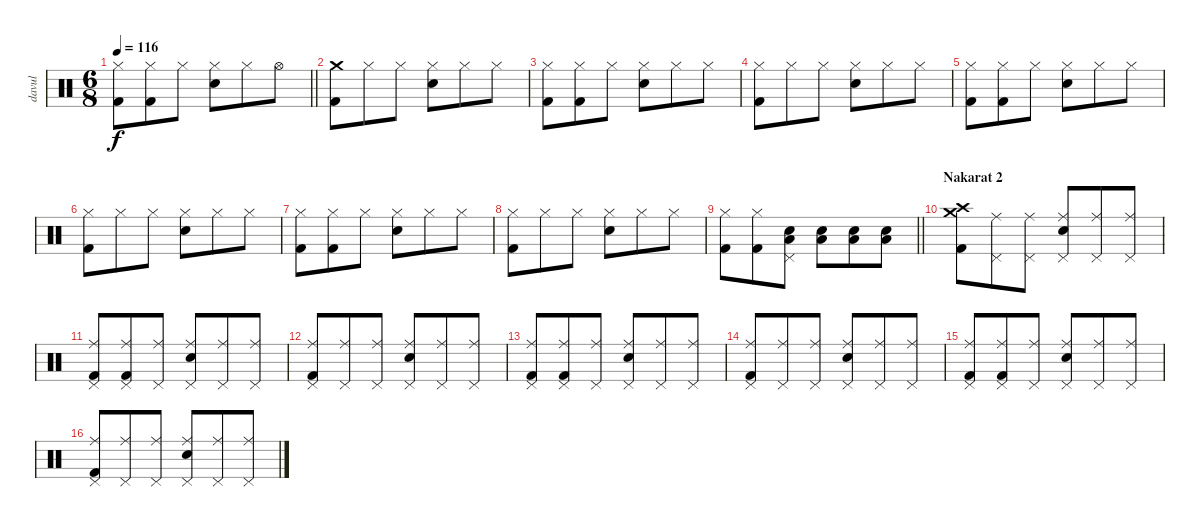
\track ("davul" "davul") {instrument percussion}
\staff {score}
\articulation defaults
\ts (6 8)
\tempo 116
\clef neutral
\barLineRight lightlight
\ks c
("Hi-Hat (closed)" "Kick (hit) 2").8{dy f} ("Hi-Hat (closed)" "Kick (hit) 2").8 "Hi-Hat (closed)".8 ("Hi-Hat (closed)" "Electric Snare (hit)").8 "Hi-Hat (closed)".8 "Hi-Hat (open)".8 |
("Crash medium (hit)" "Kick (hit) 2").8 "Hi-Hat (closed)".8 "Hi-Hat (closed)".8 ("Hi-Hat (closed)" "Electric Snare (hit)").8 "Hi-Hat (closed)".8 "Hi-Hat (closed)".8 |
("Hi-Hat (closed)" "Kick (hit) 2").8 ("Hi-Hat (closed)" "Kick (hit) 2").8 "Hi-Hat (closed)".8 ("Hi-Hat (closed)" "Electric Snare (hit)").8 "Hi-Hat (closed)".8 "Hi-Hat (closed)".8 |
("Hi-Hat (closed)" "Kick (hit) 2").8 "Hi-Hat (closed)".8 "Hi-Hat (closed)".8 ("Hi-Hat (closed)" "Electric Snare (hit)").8 "Hi-Hat (closed)".8 "Hi-Hat (closed)".8 |
("Hi-Hat (closed)" "Kick (hit) 2").8 ("Hi-Hat (closed)" "Kick (hit) 2").8 "Hi-Hat (closed)".8 ("Hi-Hat (closed)" "Electric Snare (hit)").8 "Hi-Hat (closed)".8 "Hi-Hat (closed)".8 |
("Hi-Hat (closed)" "Kick (hit) 2").8 "Hi-Hat (closed)".8 "Hi-Hat (closed)".8 ("Hi-Hat (closed)" "Electric Snare (hit)").8 "Hi-Hat (closed)".8 "Hi-Hat (closed)".8 |
("Hi-Hat (closed)" "Kick (hit) 2").8 ("Hi-Hat (closed)" "Kick (hit) 2").8 "Hi-Hat (closed)".8 ("Hi-Hat (closed)" "Electric Snare (hit)").8 "Hi-Hat (closed)".8 "Hi-Hat (closed)".8 |
("Hi-Hat (closed)" "Kick (hit) 2").8 "Hi-Hat (closed)".8 "Hi-Hat (closed)".8 ("Hi-Hat (closed)" "Electric Snare (hit)").8 "Hi-Hat (closed)".8 "Hi-Hat (closed)".8 |
\barLineRight lightlight
("Hi-Hat (closed)" "Kick (hit) 2").8 ("Hi-Hat (closed)" "Kick (hit) 2").8 ("Pedal Hi-Hat (hit)" "Electric Snare (hit)" "Low Floor Tom (hit)").8 ("Electric Snare (hit)" "Low Floor Tom (hit)").8 ("Electric Snare (hit)" "Low Floor Tom (hit)").8 ("Electric Snare (hit)" "Low Floor Tom (hit)").8 |
\section ("" "Nakarat 2 ")
("Crash high (hit)" "Crash medium (hit)" "Kick (hit) 2").8 ("Ride (middle)" "Pedal Hi-Hat (hit)").8 ("Ride (middle)" "Pedal Hi-Hat (hit)").8 ("Ride (middle)" "Electric Snare (hit)" "Pedal Hi-Hat (hit)").8 ("Ride (middle)" "Pedal Hi-Hat (hit)").8 ("Ride (middle)" "Pedal Hi-Hat (hit)").8 |
("Ride (middle)" "Kick (hit) 2" "Pedal Hi-Hat (hit)").8 ("Ride (middle)" "Kick (hit) 2" "Pedal Hi-Hat (hit)").8 ("Ride (middle)" "Pedal Hi-Hat (hit)").8 ("Ride (middle)" "Electric Snare (hit)" "Pedal Hi-Hat (hit)").8 ("Ride (middle)" "Pedal Hi-Hat (hit)").8 ("Ride (middle)" "Pedal Hi-Hat (hit)").8 |
("Ride (middle)" "Kick (hit) 2" "Pedal Hi-Hat (hit)").8 ("Ride (middle)" "Pedal Hi-Hat (hit)").8 ("Ride (middle)" "Pedal Hi-Hat (hit)").8 ("Ride (middle)" "Electric Snare (hit)" "Pedal Hi-Hat (hit)").8 ("Ride (middle)" "Pedal Hi-Hat (hit)").8 ("Ride (middle)" "Pedal Hi-Hat (hit)").8 |
("Ride (middle)" "Kick (hit) 2" "Pedal Hi-Hat (hit)").8 ("Ride (middle)" "Kick (hit) 2" "Pedal Hi-Hat (hit)").8 ("Ride (middle)" "Pedal Hi-Hat (hit)").8 ("Ride (middle)" "Electric Snare (hit)" "Pedal Hi-Hat (hit)").8 ("Ride (middle)" "Pedal Hi-Hat (hit)").8 ("Ride (middle)" "Pedal Hi-Hat (hit)").8 |
("Ride (middle)" "Kick (hit) 2" "Pedal Hi-Hat (hit)").8 ("Ride (middle)" "Pedal Hi-Hat (hit)").8 ("Ride (middle)" "Pedal Hi-Hat (hit)").8 ("Ride (middle)" "Electric Snare (hit)" "Pedal Hi-Hat (hit)").8 ("Ride (middle)" "Pedal Hi-Hat (hit)").8 ("Ride (middle)" "Pedal Hi-Hat (hit)").8 |
("Ride (middle)" "Kick (hit) 2" "Pedal Hi-Hat (hit)").8 ("Ride (middle)" "Kick (hit) 2" "Pedal Hi-Hat (hit)").8 ("Ride (middle)" "Pedal Hi-Hat (hit)").8 ("Ride (middle)" "Electric Snare (hit)" "Pedal Hi-Hat (hit)").8 ("Ride (middle)" "Pedal Hi-Hat (hit)").8 ("Ride (middle)" "Pedal Hi-Hat (hit)").8 |
("Ride (middle)" "Kick (hit) 2" "Pedal Hi-Hat (hit)").8 ("Ride (middle)" "Pedal Hi-Hat (hit)").8 ("Ride (middle)" "Pedal Hi-Hat (hit)").8 ("Ride (middle)" "Electric Snare (hit)" "Pedal Hi-Hat (hit)").8 ("Ride (middle)" "Pedal Hi-Hat (hit)").8 ("Ride (middle)" "Pedal Hi-Hat (hit)").8
